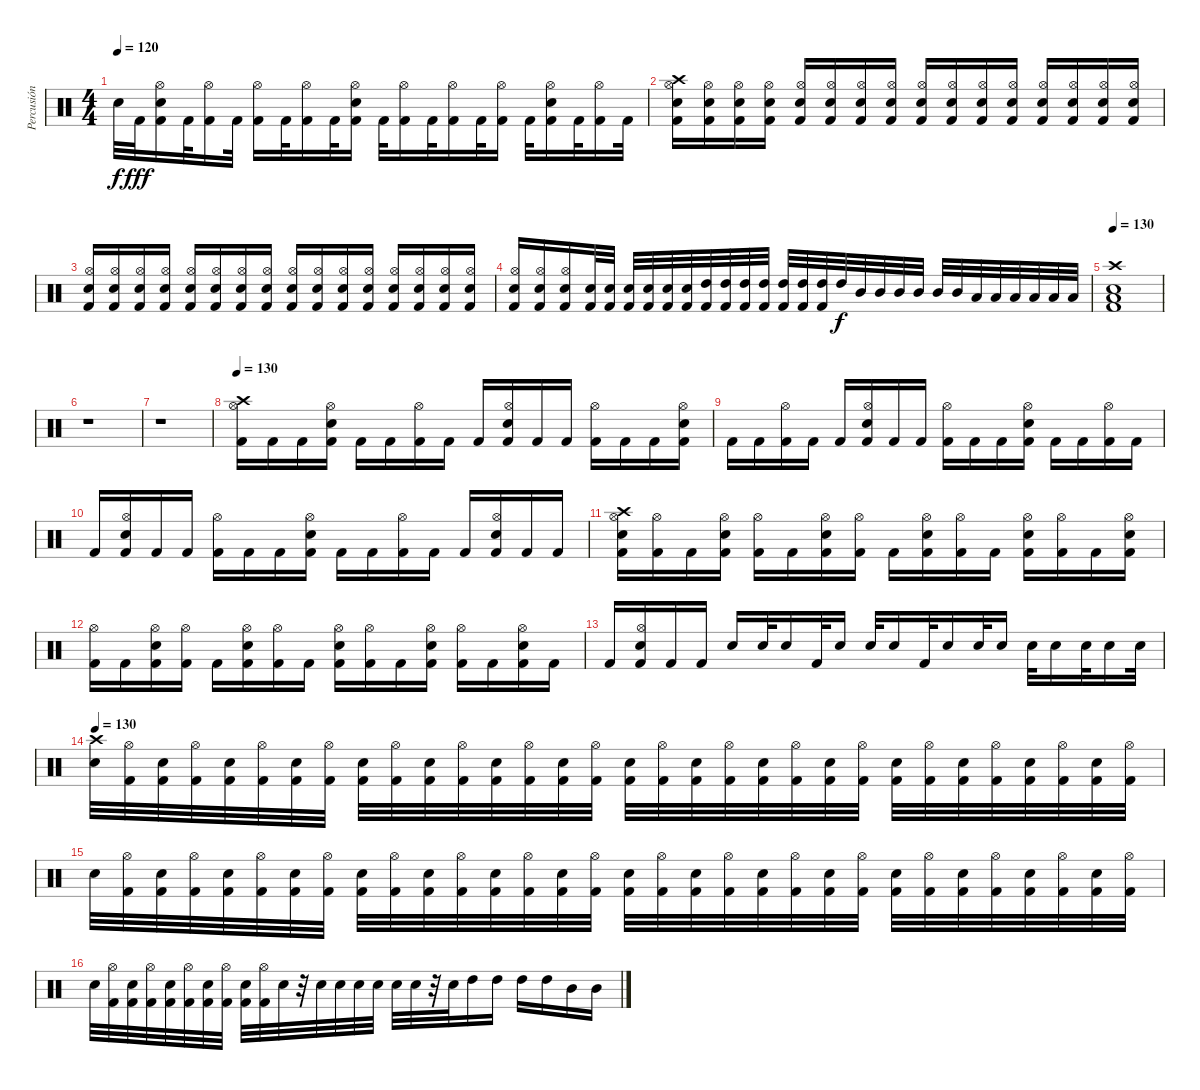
\track ("Percusión" "Percusión") {instrument percussion}
\staff {score}
\articulation defaults
\ts (4 4)
\tempo 120
\clef neutral
\ks c "Snare (hit)"{t}.32{dy f} "Kick (hit) 2".32{dy fff}
("Hi-Hat (open)" "Electric Snare (hit)" "Kick (hit) 2").16 "Kick (hit) 2".32 ("Hi-Hat (open)" "Kick (hit) 2").16 "Kick (hit) 2".32 ("Hi-Hat (open)" "Kick (hit) 2").16 "Kick (hit) 2".32 ("Hi-Hat (open)" "Kick (hit) 2").16 "Kick (hit) 2".32 ("Hi-Hat (open)" "Electric Snare (hit)" "Kick (hit) 2").16 "Kick (hit) 2".32 ("Hi-Hat (open)" "Kick (hit) 2").16 "Kick (hit) 2".32 ("Hi-Hat (open)" "Kick (hit) 2").16 "Kick (hit) 2".32 ("Hi-Hat (open)" "Kick (hit) 2").16 "Kick (hit) 2".32 ("Hi-Hat (open)" "Electric Snare (hit)" "Kick (hit) 2").16 "Kick (hit) 2".32 ("Hi-Hat (open)" "Kick (hit) 2").16 "Kick (hit) 2".32 |
("Crash high (hit)" "Hi-Hat (open)" "Electric Snare (hit)" "Kick (hit) 2").16 ("Hi-Hat (open)" "Electric Snare (hit)" "Kick (hit) 2").16 ("Hi-Hat (open)" "Electric Snare (hit)" "Kick (hit) 2").16 ("Hi-Hat (open)" "Electric Snare (hit)" "Kick (hit) 2").16 ("Hi-Hat (open)" "Electric Snare (hit)" "Kick (hit) 2").16 ("Hi-Hat (open)" "Electric Snare (hit)" "Kick (hit) 2").16 ("Hi-Hat (open)" "Electric Snare (hit)" "Kick (hit) 2").16 ("Hi-Hat (open)" "Electric Snare (hit)" "Kick (hit) 2").16 ("Hi-Hat (open)" "Electric Snare (hit)" "Kick (hit) 2").16 ("Hi-Hat (open)" "Electric Snare (hit)" "Kick (hit) 2").16 ("Hi-Hat (open)" "Electric Snare (hit)" "Kick (hit) 2").16 ("Hi-Hat (open)" "Electric Snare (hit)" "Kick (hit) 2").16 ("Hi-Hat (open)" "Electric Snare (hit)" "Kick (hit) 2").16 ("Hi-Hat (open)" "Electric Snare (hit)" "Kick (hit) 2").16 ("Hi-Hat (open)" "Electric Snare (hit)" "Kick (hit) 2").16 ("Hi-Hat (open)" "Electric Snare (hit)" "Kick (hit) 2").16 |
("Hi-Hat (open)" "Electric Snare (hit)" "Kick (hit) 2").16 ("Hi-Hat (open)" "Electric Snare (hit)" "Kick (hit) 2").16 ("Hi-Hat (open)" "Electric Snare (hit)" "Kick (hit) 2").16 ("Hi-Hat (open)" "Electric Snare (hit)" "Kick (hit) 2").16 ("Hi-Hat (open)" "Electric Snare (hit)" "Kick (hit) 2").16 ("Hi-Hat (open)" "Electric Snare (hit)" "Kick (hit) 2").16 ("Hi-Hat (open)" "Electric Snare (hit)" "Kick (hit) 2").16 ("Hi-Hat (open)" "Electric Snare (hit)" "Kick (hit) 2").16 ("Hi-Hat (open)" "Electric Snare (hit)" "Kick (hit) 2").16 ("Hi-Hat (open)" "Electric Snare (hit)" "Kick (hit) 2").16 ("Hi-Hat (open)" "Electric Snare (hit)" "Kick (hit) 2").16 ("Hi-Hat (open)" "Electric Snare (hit)" "Kick (hit) 2").16 ("Hi-Hat (open)" "Electric Snare (hit)" "Kick (hit) 2").16 ("Hi-Hat (open)" "Electric Snare (hit)" "Kick (hit) 2").16 ("Hi-Hat (open)" "Electric Snare (hit)" "Kick (hit) 2").16 ("Hi-Hat (open)" "Electric Snare (hit)" "Kick (hit) 2").16 |
("Hi-Hat (open)" "Electric Snare (hit)" "Kick (hit) 2").16 ("Hi-Hat (open)" "Electric Snare (hit)" "Kick (hit) 2").16 ("Hi-Hat (open)" "Electric Snare (hit)" "Kick (hit) 2").16 ("Electric Snare (hit)" "Kick (hit) 2").32 ("Electric Snare (hit)" "Kick (hit) 2").32 ("Electric Snare (hit)" "Kick (hit) 2").32 ("Electric Snare (hit)" "Kick (hit) 2").32 ("Electric Snare (hit)" "Kick (hit) 2").32 ("Electric Snare (hit)" "Kick (hit) 2").32 ("High Tom (hit)" "Kick (hit) 2").32 ("High Tom (hit)" "Kick (hit) 2").32 ("High Tom (hit)" "Kick (hit) 2").32 ("High Tom (hit)" "Kick (hit) 2").32 ("High Tom (hit)" "Kick (hit) 2").32 ("High Tom (hit)" "Kick (hit) 2").32 ("High Tom (hit)" "Kick (hit) 2").32 "High Tom (hit)".32{dy f} "Mid Tom (hit)".32 "Mid Tom (hit)".32 "Mid Tom (hit)".32 "Mid Tom (hit)".32 "Mid Tom (hit)".32 "Mid Tom (hit)".32 "Low Tom (hit)".32 "Low Tom (hit)".32 "Low Tom (hit)".32 "Low Tom (hit)".32 "Low Tom (hit)".32 "Low Tom (hit)".32 |
\tempo 130
("Low Floor Tom (hit)" "Kick (hit) 2" "Electric Snare (hit)" "Crash high (hit)").1 |
r.1 |
r.1 |
\tempo 130
("Crash high (hit)" "Hi-Hat (open)" "Kick (hit) 2").16 "Kick (hit) 2".16 "Kick (hit) 2".16 ("Hi-Hat (open)" "Electric Snare (hit)" "Kick (hit) 2").16 "Kick (hit) 2".16 "Kick (hit) 2".16 ("Hi-Hat (open)" "Kick (hit) 2").16 "Kick (hit) 2".16 "Kick (hit) 2".16 ("Hi-Hat (open)" "Electric Snare (hit)" "Kick (hit) 2").16 "Kick (hit) 2".16 "Kick (hit) 2".16 ("Hi-Hat (open)" "Kick (hit) 2").16 "Kick (hit) 2".16 "Kick (hit) 2".16 ("Hi-Hat (open)" "Electric Snare (hit)" "Kick (hit) 2").16 |
"Kick (hit) 2".16 "Kick (hit) 2".16 ("Hi-Hat (open)" "Kick (hit) 2").16 "Kick (hit) 2".16 "Kick (hit) 2".16 ("Hi-Hat (open)" "Electric Snare (hit)" "Kick (hit) 2").16 "Kick (hit) 2".16 "Kick (hit) 2".16 ("Hi-Hat (open)" "Kick (hit) 2").16 "Kick (hit) 2".16 "Kick (hit) 2".16 ("Hi-Hat (open)" "Electric Snare (hit)" "Kick (hit) 2").16 "Kick (hit) 2".16 "Kick (hit) 2".16 ("Hi-Hat (open)" "Kick (hit) 2").16 "Kick (hit) 2".16 |
"Kick (hit) 2".16 ("Hi-Hat (open)" "Electric Snare (hit)" "Kick (hit) 2").16 "Kick (hit) 2".16 "Kick (hit) 2".16 ("Hi-Hat (open)" "Kick (hit) 2").16 "Kick (hit) 2".16 "Kick (hit) 2".16 ("Hi-Hat (open)" "Electric Snare (hit)" "Kick (hit) 2").16 "Kick (hit) 2".16 "Kick (hit) 2".16 ("Hi-Hat (open)" "Kick (hit) 2").16 "Kick (hit) 2".16 "Kick (hit) 2".16 ("Hi-Hat (open)" "Electric Snare (hit)" "Kick (hit) 2").16 "Kick (hit) 2".16 "Kick (hit) 2".16 |
("Crash high (hit)" "Hi-Hat (open)" "Electric Snare (hit)" "Kick (hit) 2").16 ("Hi-Hat (open)" "Kick (hit) 2").16 "Kick (hit) 2".16 ("Hi-Hat (open)" "Electric Snare (hit)" "Kick (hit) 2").16 ("Hi-Hat (open)" "Kick (hit) 2").16 "Kick (hit) 2".16 ("Hi-Hat (open)" "Electric Snare (hit)" "Kick (hit) 2").16 ("Hi-Hat (open)" "Kick (hit) 2").16 "Kick (hit) 2".16 ("Hi-Hat (open)" "Electric Snare (hit)" "Kick (hit) 2").16 ("Hi-Hat (open)" "Kick (hit) 2").16 "Kick (hit) 2".16 ("Hi-Hat (open)" "Electric Snare (hit)" "Kick (hit) 2").16 ("Hi-Hat (open)" "Kick (hit) 2").16 "Kick (hit) 2".16 ("Hi-Hat (open)" "Electric Snare (hit)" "Kick (hit) 2").16 |
("Hi-Hat (open)" "Kick (hit) 2").16 "Kick (hit) 2".16 ("Hi-Hat (open)" "Electric Snare (hit)" "Kick (hit) 2").16 ("Hi-Hat (open)" "Kick (hit) 2").16 "Kick (hit) 2".16 ("Hi-Hat (open)" "Electric Snare (hit)" "Kick (hit) 2").16 ("Hi-Hat (open)" "Kick (hit) 2").16 "Kick (hit) 2".16 ("Hi-Hat (open)" "Electric Snare (hit)" "Kick (hit) 2").16 ("Hi-Hat (open)" "Kick (hit) 2").16 "Kick (hit) 2".16 ("Hi-Hat (open)" "Electric Snare (hit)" "Kick (hit) 2").16 ("Hi-Hat (open)" "Kick (hit) 2").16 "Kick (hit) 2".16 ("Hi-Hat (open)" "Electric Snare (hit)" "Kick (hit) 2").16 "Kick (hit) 2".16 |
"Kick (hit) 2".16 ("Hi-Hat (open)" "Electric Snare (hit)" "Kick (hit) 2").16 "Kick (hit) 2".16 "Kick (hit) 2".16 "Electric Snare (hit)".16 "Electric Snare (hit)".32 "Electric Snare (hit)".16 "Kick (hit) 2".32 "Electric Snare (hit)".16 "Electric Snare (hit)".32 "Electric Snare (hit)".16 "Kick (hit) 2".32 "Electric Snare (hit)".16 "Electric Snare (hit)".32 "Electric Snare (hit)".16 "Electric Snare (hit)".32 "Electric Snare (hit)".16 "Electric Snare (hit)".32 "Electric Snare (hit)".16 "Electric Snare (hit)".32 |
\tempo 130
("Crash high (hit)" "Electric Snare (hit)").32 ("Hi-Hat (open)" "Kick (hit) 2").32 ("Electric Snare (hit)" "Kick (hit) 2").32 ("Hi-Hat (open)" "Kick (hit) 2").32 ("Electric Snare (hit)" "Kick (hit) 2").32 ("Hi-Hat (open)" "Kick (hit) 2").32 ("Electric Snare (hit)" "Kick (hit) 2").32 ("Hi-Hat (open)" "Kick (hit) 2").32 ("Electric Snare (hit)" "Kick (hit) 2").32 ("Hi-Hat (open)" "Kick (hit) 2").32 ("Electric Snare (hit)" "Kick (hit) 2").32 ("Hi-Hat (open)" "Kick (hit) 2").32 ("Electric Snare (hit)" "Kick (hit) 2").32 ("Hi-Hat (open)" "Kick (hit) 2").32 ("Electric Snare (hit)" "Kick (hit) 2").32 ("Hi-Hat (open)" "Kick (hit) 2").32 ("Electric Snare (hit)" "Kick (hit) 2").32 ("Hi-Hat (open)" "Kick (hit) 2").32 ("Electric Snare (hit)" "Kick (hit) 2").32 ("Hi-Hat (open)" "Kick (hit) 2").32 ("Electric Snare (hit)" "Kick (hit) 2").32 ("Hi-Hat (open)" "Kick (hit) 2").32 ("Electric Snare (hit)" "Kick (hit) 2").32 ("Hi-Hat (open)" "Kick (hit) 2").32 ("Electric Snare (hit)" "Kick (hit) 2").32 ("Hi-Hat (open)" "Kick (hit) 2").32 ("Electric Snare (hit)" "Kick (hit) 2").32 ("Hi-Hat (open)" "Kick (hit) 2").32 ("Electric Snare (hit)" "Kick (hit) 2").32 ("Hi-Hat (open)" "Kick (hit) 2").32 ("Electric Snare (hit)" "Kick (hit) 2").32 ("Hi-Hat (open)" "Kick (hit) 2").32 |
"Electric Snare (hit)".32 ("Hi-Hat (open)" "Kick (hit) 2").32 ("Electric Snare (hit)" "Kick (hit) 2").32 ("Hi-Hat (open)" "Kick (hit) 2").32 ("Electric Snare (hit)" "Kick (hit) 2").32 ("Hi-Hat (open)" "Kick (hit) 2").32 ("Electric Snare (hit)" "Kick (hit) 2").32 ("Hi-Hat (open)" "Kick (hit) 2").32 ("Electric Snare (hit)" "Kick (hit) 2").32 ("Hi-Hat (open)" "Kick (hit) 2").32 ("Electric Snare (hit)" "Kick (hit) 2").32 ("Hi-Hat (open)" "Kick (hit) 2").32 ("Electric Snare (hit)" "Kick (hit) 2").32 ("Hi-Hat (open)" "Kick (hit) 2").32 ("Electric Snare (hit)" "Kick (hit) 2").32 ("Hi-Hat (open)" "Kick (hit) 2").32 ("Electric Snare (hit)" "Kick (hit) 2").32 ("Hi-Hat (open)" "Kick (hit) 2").32 ("Electric Snare (hit)" "Kick (hit) 2").32 ("Hi-Hat (open)" "Kick (hit) 2").32 ("Electric Snare (hit)" "Kick (hit) 2").32 ("Hi-Hat (open)" "Kick (hit) 2").32 ("Electric Snare (hit)" "Kick (hit) 2").32 ("Hi-Hat (open)" "Kick (hit) 2").32 ("Electric Snare (hit)" "Kick (hit) 2").32 ("Hi-Hat (open)" "Kick (hit) 2").32 ("Electric Snare (hit)" "Kick (hit) 2").32 ("Hi-Hat (open)" "Kick (hit) 2").32 ("Electric Snare (hit)" "Kick (hit) 2").32 ("Hi-Hat (open)" "Kick (hit) 2").32 ("Electric Snare (hit)" "Kick (hit) 2").32 ("Hi-Hat (open)" "Kick (hit) 2").32 |
"Electric Snare (hit)".32 ("Hi-Hat (open)" "Kick (hit) 2").32 ("Electric Snare (hit)" "Kick (hit) 2").32 ("Hi-Hat (open)" "Kick (hit) 2").32 ("Electric Snare (hit)" "Kick (hit) 2").32 ("Hi-Hat (open)" "Kick (hit) 2").32 ("Electric Snare (hit)" "Kick (hit) 2").32 ("Hi-Hat (open)" "Kick (hit) 2").32 ("Electric Snare (hit)" "Kick (hit) 2").32 ("Hi-Hat (open)" "Kick (hit) 2").32 "Electric Snare (hit)".32 r.32 "Electric Snare (hit)".32 "Electric Snare (hit)".32 "Electric Snare (hit)".32 "Electric Snare (hit)".32 "Electric Snare (hit)".32 "Electric Snare (hit)".32 r.32 "Electric Snare (hit)".32 "High Tom (hit)".16 "High Tom (hit)".16 "High Tom (hit)".16 "High Tom (hit)".16 "Mid Tom (hit)".16 "Mid Tom (hit)".16
